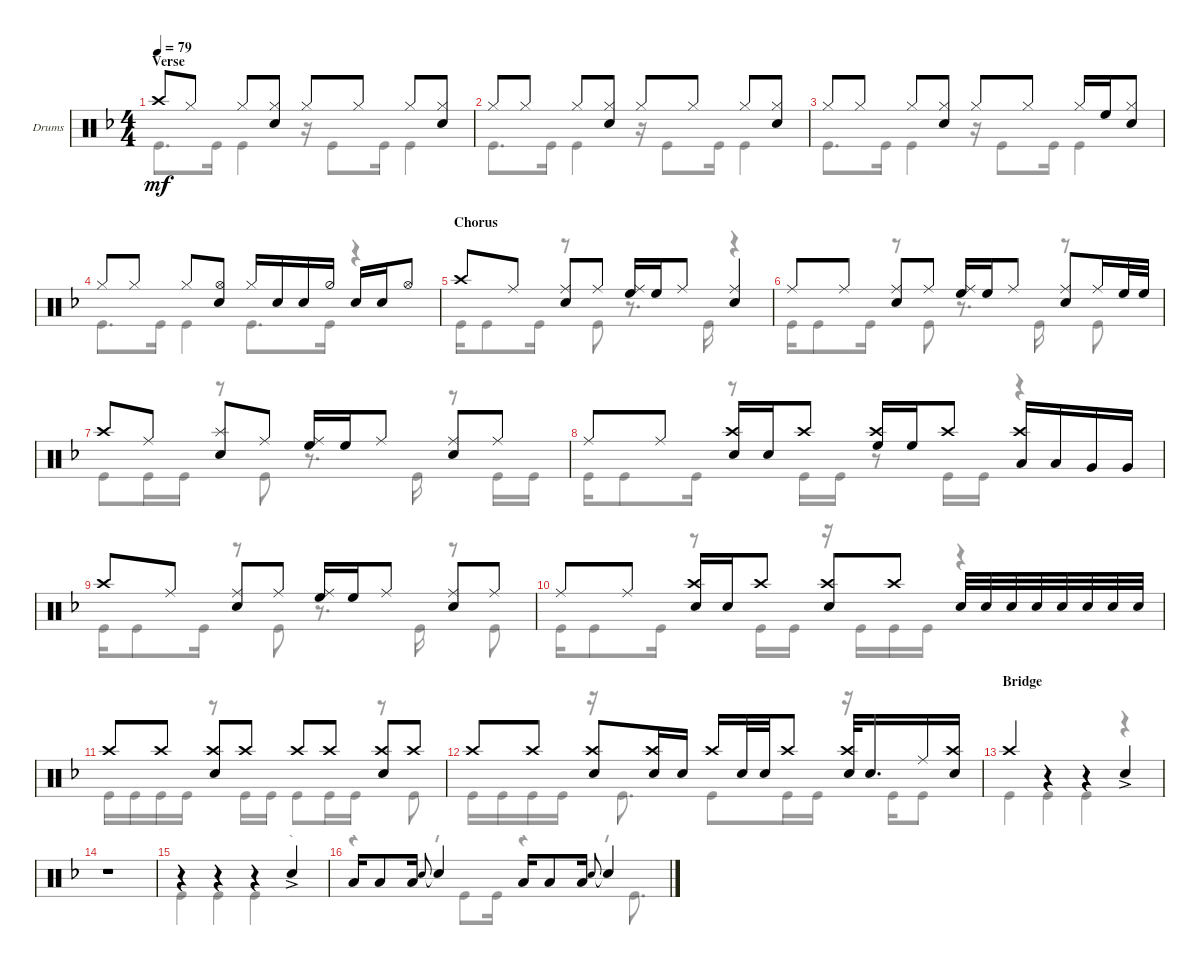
\defaultSystemsLayout 4
\bracketExtendMode groupsimilarinstruments
\firstSystemTrackNameOrientation horizontal
\otherSystemsTrackNameOrientation horizontal
\track ("Drums" "Drums") {instrument percussion}
\staff {score}
\articulation defaults
\voice
\ts (4 4)
\section ("" "Verse")
\tempo 79
\clef neutral
\scale
1.04161
\ks f "Crash high (hit)".8{dy mf} "Hi-Hat (closed)".8 "Hi-Hat (closed)".8
("Hi-Hat (closed)" "Snare (hit) 2").8 "Hi-Hat (closed)".8 "Hi-Hat (closed)".8 "Hi-Hat (closed)".8 ("Hi-Hat (closed)" "Snare (hit) 2").8 |
\scale
0.958386 "Hi-Hat (closed)".8 "Hi-Hat (closed)".8 "Hi-Hat (closed)".8 ("Hi-Hat (closed)" "Snare (hit) 2").8 "Hi-Hat (closed)".8 "Hi-Hat (closed)".8 "Hi-Hat (closed)".8 ("Hi-Hat (closed)" "Snare (hit) 2").8 |
\scale
1.04161 "Hi-Hat (closed)".8 "Hi-Hat (closed)".8 "Hi-Hat (closed)".8 ("Hi-Hat (closed)" "Snare (hit) 2").8 "Hi-Hat (closed)".8 "Hi-Hat (closed)".8 "Hi-Hat (closed)".16 "High Floor Tom (hit)".16 ("Hi-Hat (closed)" "Snare (hit) 2").8 |
\scale
0.958386 "Hi-Hat (closed)".8 "Hi-Hat (closed)".8 "Hi-Hat (closed)".8 ("Hi-Hat (open)" "Snare (hit) 2").8 "Hi-Hat (closed)".16 "Snare (hit) 2".16 "Snare (hit) 2".16 "Hi-Hat (half)".16 "Snare (hit) 2".16 "Snare (hit) 2".16 "Hi-Hat (open)".8 |
\section ("" "Chorus")
\scale
1.04161 "Crash high (hit)".8 "Ride (middle)".8 ("Ride (middle)" "Snare (hit) 2").8 "Ride (middle)".8 ("Ride (middle)" "High Floor Tom (hit)").16 "High Floor Tom (hit)".16 "Ride (middle)".8 ("Ride (middle)" "Snare (hit) 2").4 |
\scale
0.958386 "Ride (middle)".8 "Ride (middle)".8 ("Ride (middle)" "Snare (hit) 2").8 "Ride (middle)".8 ("Ride (middle)" "High Floor Tom (hit)").16 "High Floor Tom (hit)".16 "Ride (middle)".8 ("Ride (middle)" "Snare (hit) 2").8 "Ride (middle)".16 "High Floor Tom (hit)".32 "High Floor Tom (hit)".32 |
\scale
1.04161 "Crash high (hit)".8 "Ride (middle)".8 ("Snare (hit) 2" "Splash (hit)").8 "Ride (middle)".8 ("Ride (middle)" "High Floor Tom (hit)").16 "High Floor Tom (hit)".16 "Ride (middle)".8 ("Ride (middle)" "Snare (hit) 2").8 "Ride (middle)".8 |
\scale
0.958386 "Ride (middle)".8 "Ride (middle)".8 ("Snare (hit) 2" "Crash high (hit)").16 "Snare (hit) 2".16 "Crash high (hit)".8 ("High Floor Tom (hit)" "Crash high (hit)").16 "High Floor Tom (hit)".16 "Crash high (hit)".8 ("Low Tom (hit)" "Crash high (hit)").16 "Low Tom (hit)".16 "Very Low Tom (hit)".16 "Very Low Tom (hit)".16 |
\scale
1.04161 "Crash high (hit)".8 "Ride (middle)".8 ("Ride (middle)" "Snare (hit) 2").8 "Ride (middle)".8 ("Ride (middle)" "High Floor Tom (hit)").16 "High Floor Tom (hit)".16 "Ride (middle)".8 ("Ride (middle)" "Snare (hit) 2").8 "Ride (middle)".8 |
\scale
0.958386 "Ride (middle)".8 "Ride (middle)".8 ("Snare (hit) 2" "Crash high (hit)").16 "Snare (hit) 2".16 "Crash high (hit)".8 ("Crash high (hit)" "Snare (hit) 2").8 "Crash high (hit)".8 "Snare (hit) 2".32 "Snare (hit) 2".32 "Snare (hit) 2".32 "Snare (hit) 2".32 "Snare (hit) 2".32 "Snare (hit) 2".32 "Snare (hit) 2".32 "Snare (hit) 2".32 |
\scale
1.04161 "Crash high (hit)".8 "Crash high (hit)".8 ("Crash high (hit)" "Snare (hit) 2").8 "Crash high (hit)".8 "Crash high (hit)".8 "Crash high (hit)".8 ("Crash high (hit)" "Snare (hit) 2").8 "Crash high (hit)".8 |
\scale
0.958386 "Crash high (hit)".8 "Crash high (hit)".8 ("Crash high (hit)" "Snare (hit) 2").8 ("Crash high (hit)" "Snare (hit) 2").16 "Snare (hit) 2".16 "Crash high (hit)".16 "Snare (hit) 2".32 "Snare (hit) 2".32 "Crash high (hit)".8 ("Crash high (hit)" "Snare (hit) 2").32 "Snare (hit) 2".16{d} "Ride (middle)".16 ("Snare (hit) 2" "Crash high (hit)").16 |
\section ("" "Bridge")
\scale
1.04161 "Crash high (hit)".4 r.4 r.4 "Snare (hit) 2"{ac}.4 |
\scale
0.958386 r.1 |
\scale
1.04161 r.4 r.4 r.4 "Snare (hit) 2"{ac}.4 |
\scale
0.958386 "Low Tom (hit)".16 "Low Tom (hit)".8 "Low Tom (hit)".16 "Snare (hit) 2".8{gr onbeat} "Snare (hit) 2"{t}.4 "Low Tom (hit)".16 "Low Tom (hit)".8 "Low Tom (hit)".16 "Snare (hit) 2".8{gr onbeat} "Snare (hit) 2"{t}.4
\voice
\clef neutral
\ottava regular
\simile none
\scale
1.04161
\ks f "Kick (hit)".8{d dy mf} "Kick (hit)".16 "Kick (hit)".4
r.16 "Kick (hit)".8 "Kick (hit)".16 "Kick (hit)".4 |
\scale
0.958386 "Kick (hit)".8{d} "Kick (hit)".16 "Kick (hit)".4 r.16 "Kick (hit)".8 "Kick (hit)".16 "Kick (hit)".4 |
\scale
1.04161 "Kick (hit)".8{d} "Kick (hit)".16 "Kick (hit)".4 r.16 "Kick (hit)".8 "Kick (hit)".16 "Kick (hit)".4 |
\scale
0.958386 "Kick (hit)".8{d} "Kick (hit)".16 "Kick (hit)".4 "Kick (hit)".8{d} "Kick (hit)".16 r.4 |
\scale
1.04161 "Kick (hit)".16 "Kick (hit)".8 "Kick (hit)".16 r.8 "Kick (hit)".8 r.8{d} "Kick (hit)".16 r.4 |
\scale
0.958386 "Kick (hit)".16 "Kick (hit)".8 "Kick (hit)".16 r.8 "Kick (hit)".8 r.8{d} "Kick (hit)".16 r.8 "Kick (hit)".8 |
\scale
1.04161 "Kick (hit)".8 "Kick (hit)".16 "Kick (hit)".16 r.8 "Kick (hit)".8 r.8{d} "Kick (hit)".16 r.8 "Kick (hit)".16 "Kick (hit)".16 |
\scale
0.958386 "Kick (hit)".16 "Kick (hit)".8 "Kick (hit)".16 r.8 "Kick (hit)".16 "Kick (hit)".16 r.8 "Kick (hit)".16 "Kick (hit)".16 r.4 |
\scale
1.04161 "Kick (hit)".16 "Kick (hit)".8 "Kick (hit)".16 r.8 "Kick (hit)".8 r.8{d} "Kick (hit)".16 r.8 "Kick (hit)".8 |
\scale
0.958386 "Kick (hit)".16 "Kick (hit)".8 "Kick (hit)".16 r.8 "Kick (hit)".16 "Kick (hit)".16 r.16 "Kick (hit)".16 "Kick (hit)".16 "Kick (hit)".16 r.4 |
\scale
1.04161 "Kick (hit)".16 "Kick (hit)".16 "Kick (hit)".16 "Kick (hit)".16 r.8 "Kick (hit)".16 "Kick (hit)".16 "Kick (hit)".8 "Kick (hit)".16 "Kick (hit)".16 r.8 "Kick (hit)".8 |
\scale
0.958386 "Kick (hit)".16 "Kick (hit)".16 "Kick (hit)".16 "Kick (hit)".16 r.16 "Kick (hit)".8{d} "Kick (hit)".8 "Kick (hit)".16 "Kick (hit)".16 r.16 "Kick (hit)".16 "Kick (hit)".8 |
\scale
1.04161 "Kick (hit)".4 "Kick (hit)".4 "Kick (hit)".4 r.4 |
\scale
0.958386 r.1 |
\scale
1.04161 "Kick (hit)".4 "Kick (hit)".4 "Kick (hit)".4 r.4 |
\scale
0.958386 r.4 r.16 "Kick (hit)".8 "Kick (hit)".16 r.4 r.16 "Kick (hit)".8{d}
